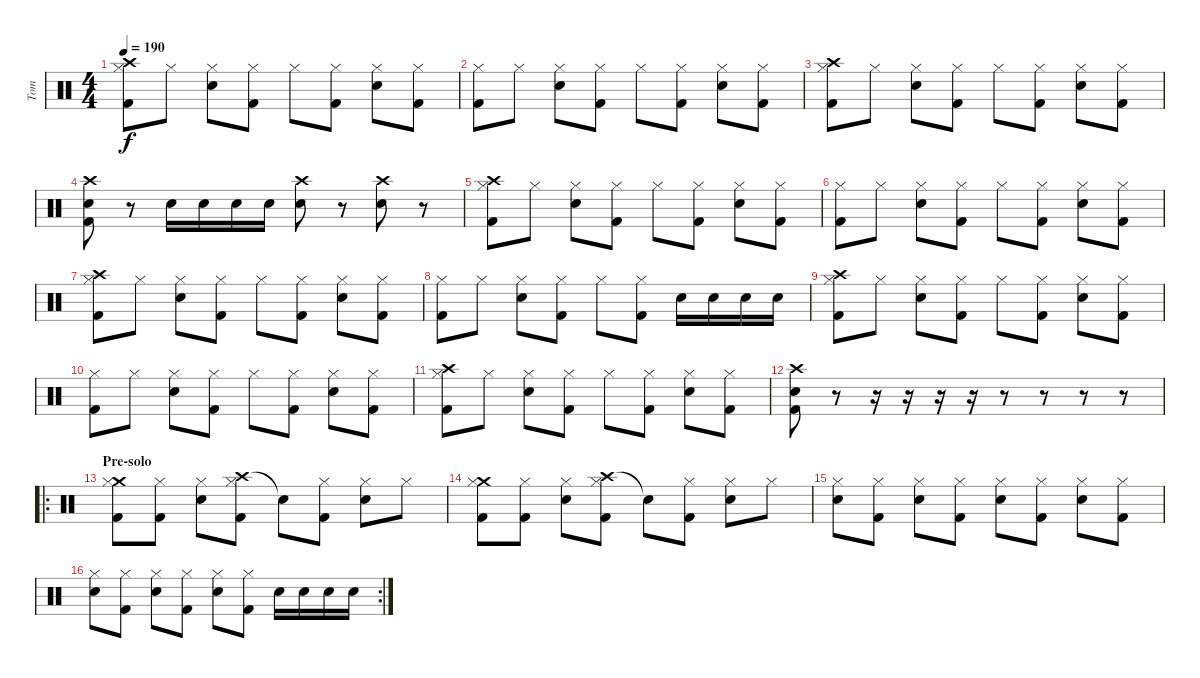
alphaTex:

\track ("Tom" "Tom") {instrument percussion}
\staff {score}
\articulation defaults
\ts (4 4)
\tempo 190
\clef neutral
\ks c
("Crash high (hit)" "Hi-Hat (closed)" "Kick (hit) 2").8{dy f} "Hi-Hat (closed)".8 ("Hi-Hat (closed)" "Electric Snare (hit)").8 ("Hi-Hat (closed)" "Kick (hit) 2").8 "Hi-Hat (closed)".8 ("Hi-Hat (closed)" "Kick (hit) 2").8 ("Hi-Hat (closed)" "Electric Snare (hit)").8 ("Hi-Hat (closed)" "Kick (hit) 2").8 |
("Hi-Hat (closed)" "Kick (hit) 2").8 "Hi-Hat (closed)".8 ("Hi-Hat (closed)" "Electric Snare (hit)").8 ("Hi-Hat (closed)" "Kick (hit) 2").8 "Hi-Hat (closed)".8 ("Hi-Hat (closed)" "Kick (hit) 2").8 ("Hi-Hat (closed)" "Electric Snare (hit)").8 ("Hi-Hat (closed)" "Kick (hit) 2").8 |
("Crash high (hit)" "Hi-Hat (closed)" "Kick (hit) 2").8 "Hi-Hat (closed)".8 ("Hi-Hat (closed)" "Electric Snare (hit)").8 ("Hi-Hat (closed)" "Kick (hit) 2").8 "Hi-Hat (closed)".8 ("Hi-Hat (closed)" "Kick (hit) 2").8 ("Hi-Hat (closed)" "Electric Snare (hit)").8 ("Hi-Hat (closed)" "Kick (hit) 2").8 |
("Crash high (hit)" "Electric Snare (hit)" "Kick (hit) 2").8 r.8 "Electric Snare (hit)".16 "Electric Snare (hit)".16 "Electric Snare (hit)".16 "Electric Snare (hit)".16 ("Crash high (hit)" "Electric Snare (hit)").8 r.8 ("Crash high (hit)" "Electric Snare (hit)").8 r.8 |
("Crash high (hit)" "Hi-Hat (closed)" "Kick (hit) 2").8 "Hi-Hat (closed)".8 ("Hi-Hat (closed)" "Electric Snare (hit)").8 ("Hi-Hat (closed)" "Kick (hit) 2").8 "Hi-Hat (closed)".8 ("Hi-Hat (closed)" "Kick (hit) 2").8 ("Hi-Hat (closed)" "Electric Snare (hit)").8 ("Hi-Hat (closed)" "Kick (hit) 2").8 |
("Hi-Hat (closed)" "Kick (hit) 2").8 "Hi-Hat (closed)".8 ("Hi-Hat (closed)" "Electric Snare (hit)").8 ("Hi-Hat (closed)" "Kick (hit) 2").8 "Hi-Hat (closed)".8 ("Hi-Hat (closed)" "Kick (hit) 2").8 ("Hi-Hat (closed)" "Electric Snare (hit)").8 ("Hi-Hat (closed)" "Kick (hit) 2").8 |
("Crash high (hit)" "Hi-Hat (closed)" "Kick (hit) 2").8 "Hi-Hat (closed)".8 ("Hi-Hat (closed)" "Electric Snare (hit)").8 ("Hi-Hat (closed)" "Kick (hit) 2").8 "Hi-Hat (closed)".8 ("Hi-Hat (closed)" "Kick (hit) 2").8 ("Hi-Hat (closed)" "Electric Snare (hit)").8 ("Hi-Hat (closed)" "Kick (hit) 2").8 |
("Hi-Hat (closed)" "Kick (hit) 2").8 "Hi-Hat (closed)".8 ("Hi-Hat (closed)" "Electric Snare (hit)").8 ("Hi-Hat (closed)" "Kick (hit) 2").8 "Hi-Hat (closed)".8 ("Hi-Hat (closed)" "Kick (hit) 2").8 "Electric Snare (hit)".16 "Electric Snare (hit)".16 "Electric Snare (hit)".16 "Electric Snare (hit)".16 |
("Crash high (hit)" "Hi-Hat (closed)" "Kick (hit) 2").8 "Hi-Hat (closed)".8 ("Hi-Hat (closed)" "Electric Snare (hit)").8 ("Hi-Hat (closed)" "Kick (hit) 2").8 "Hi-Hat (closed)".8 ("Hi-Hat (closed)" "Kick (hit) 2").8 ("Hi-Hat (closed)" "Electric Snare (hit)").8 ("Hi-Hat (closed)" "Kick (hit) 2").8 |
("Hi-Hat (closed)" "Kick (hit) 2").8 "Hi-Hat (closed)".8 ("Hi-Hat (closed)" "Electric Snare (hit)").8 ("Hi-Hat (closed)" "Kick (hit) 2").8 "Hi-Hat (closed)".8 ("Hi-Hat (closed)" "Kick (hit) 2").8 ("Hi-Hat (closed)" "Electric Snare (hit)").8 ("Hi-Hat (closed)" "Kick (hit) 2").8 |
("Crash high (hit)" "Hi-Hat (closed)" "Kick (hit) 2").8 "Hi-Hat (closed)".8 ("Hi-Hat (closed)" "Electric Snare (hit)").8 ("Hi-Hat (closed)" "Kick (hit) 2").8 "Hi-Hat (closed)".8 ("Hi-Hat (closed)" "Kick (hit) 2").8 ("Hi-Hat (closed)" "Electric Snare (hit)").8 ("Hi-Hat (closed)" "Kick (hit) 2").8 |
("Crash high (hit)" "Electric Snare (hit)" "Kick (hit) 2").8 r.8 r.16 r.16 r.16 r.16 r.8 r.8 r.8 r.8 |
\ro
\section ("" "Pre-solo")
("Crash medium (hit)" "Hi-Hat (closed)" "Kick (hit) 2").8 ("Hi-Hat (closed)" "Kick (hit) 2").8 ("Hi-Hat (closed)" "Electric Snare (hit)").8 ("Crash high (hit)" "Hi-Hat (closed)" "Kick (hit) 2").8 "Snare (hit)"{t}.8 ("Hi-Hat (closed)" "Kick (hit) 2").8 ("Hi-Hat (closed)" "Electric Snare (hit)").8 "Hi-Hat (closed)".8 |
("Crash medium (hit)" "Hi-Hat (closed)" "Kick (hit) 2").8 ("Hi-Hat (closed)" "Kick (hit) 2").8 ("Hi-Hat (closed)" "Electric Snare (hit)").8 ("Crash high (hit)" "Hi-Hat (closed)" "Kick (hit) 2").8 "Snare (hit)"{t}.8 ("Hi-Hat (closed)" "Kick (hit) 2").8 ("Hi-Hat (closed)" "Electric Snare (hit)").8 "Hi-Hat (closed)".8 |
("Hi-Hat (closed)" "Electric Snare (hit)").8 ("Hi-Hat (closed)" "Kick (hit) 2").8 ("Hi-Hat (closed)" "Electric Snare (hit)").8 ("Hi-Hat (closed)" "Kick (hit) 2").8 ("Hi-Hat (closed)" "Electric Snare (hit)").8 ("Hi-Hat (closed)" "Kick (hit) 2").8 ("Hi-Hat (closed)" "Electric Snare (hit)").8 ("Hi-Hat (closed)" "Kick (hit) 2").8 |
\rc 2
("Hi-Hat (closed)" "Electric Snare (hit)").8 ("Hi-Hat (closed)" "Kick (hit) 2").8 ("Hi-Hat (closed)" "Electric Snare (hit)").8 ("Hi-Hat (closed)" "Kick (hit) 2").8 ("Hi-Hat (closed)" "Electric Snare (hit)").8 ("Hi-Hat (closed)" "Kick (hit) 2").8 "Electric Snare (hit)".16 "Electric Snare (hit)".16 "Electric Snare (hit)".16 "Electric Snare (hit)".16
